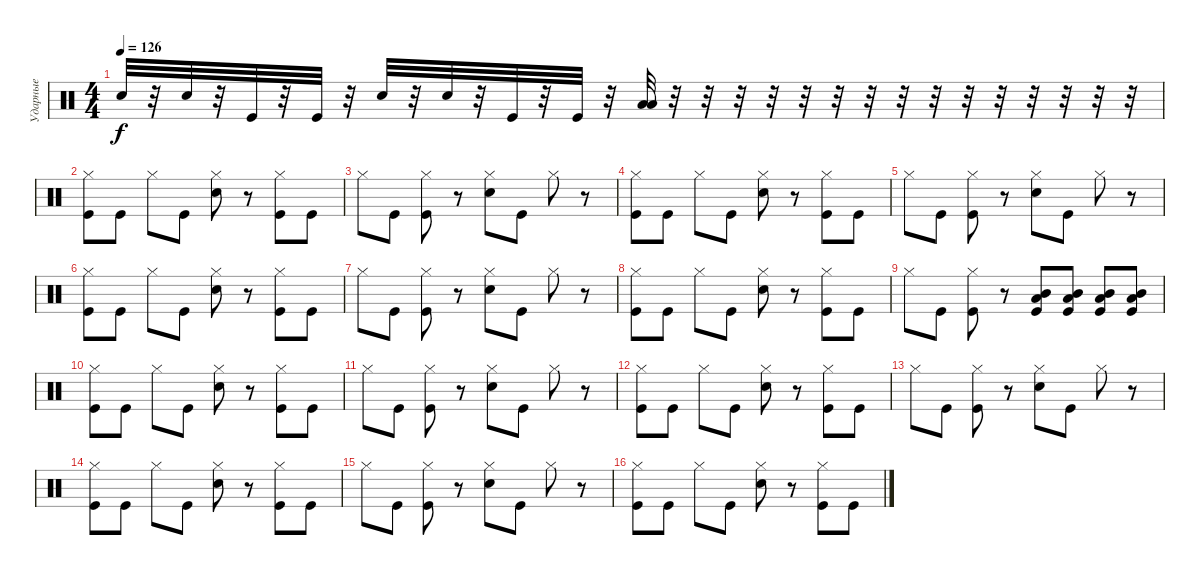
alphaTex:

\track ("Ударные" "Ударные") {instrument percussion}
\staff {score}
\articulation defaults
\ts (4 4)
\tempo 126
\clef neutral
\ks c "Electric Snare (hit)".32{dy f}
r.32 "Electric Snare (hit)".32 r.32 "Kick (hit)".32 r.32 "Kick (hit)".32 r.32 "Electric Snare (hit)".32 r.32 "Electric Snare (hit)".32 r.32 "Kick (hit)".32 r.32 "Kick (hit)".32 r.32 ("Low Floor Tom (hit)" "Low Tom (hit)").32 r.32 r.32 r.32 r.32 r.32 r.32 r.32 r.32 r.32 r.32 r.32 r.32 r.32 r.32 r.32 |
("Hi-Hat (closed)" "Kick (hit)").8 "Kick (hit)".8 "Hi-Hat (closed)".8 "Kick (hit)".8 ("Hi-Hat (closed)" "Electric Snare (hit)").8 r.8 ("Hi-Hat (closed)" "Kick (hit)").8 "Kick (hit)".8 |
"Hi-Hat (closed)".8 "Kick (hit)".8 ("Hi-Hat (closed)" "Kick (hit)").8 r.8 ("Hi-Hat (closed)" "Electric Snare (hit)").8 "Kick (hit)".8 "Hi-Hat (closed)".8 r.8 |
("Hi-Hat (closed)" "Kick (hit)").8 "Kick (hit)".8 "Hi-Hat (closed)".8 "Kick (hit)".8 ("Hi-Hat (closed)" "Electric Snare (hit)").8 r.8 ("Hi-Hat (closed)" "Kick (hit)").8 "Kick (hit)".8 |
"Hi-Hat (closed)".8 "Kick (hit)".8 ("Hi-Hat (closed)" "Kick (hit)").8 r.8 ("Hi-Hat (closed)" "Electric Snare (hit)").8 "Kick (hit)".8 "Hi-Hat (closed)".8 r.8 |
("Hi-Hat (closed)" "Kick (hit)").8 "Kick (hit)".8 "Hi-Hat (closed)".8 "Kick (hit)".8 ("Hi-Hat (closed)" "Electric Snare (hit)").8 r.8 ("Hi-Hat (closed)" "Kick (hit)").8 "Kick (hit)".8 |
"Hi-Hat (closed)".8 "Kick (hit)".8 ("Hi-Hat (closed)" "Kick (hit)").8 r.8 ("Hi-Hat (closed)" "Electric Snare (hit)").8 "Kick (hit)".8 "Hi-Hat (closed)".8 r.8 |
("Hi-Hat (closed)" "Kick (hit)").8 "Kick (hit)".8 "Hi-Hat (closed)".8 "Kick (hit)".8 ("Hi-Hat (closed)" "Electric Snare (hit)").8 r.8 ("Hi-Hat (closed)" "Kick (hit)").8 "Kick (hit)".8 |
"Hi-Hat (closed)".8 "Kick (hit)".8 ("Hi-Hat (closed)" "Kick (hit)").8 r.8 ("Low Floor Tom (hit)" "Mid Tom (hit)" "Kick (hit)").8 ("Low Floor Tom (hit)" "Mid Tom (hit)" "Kick (hit)").8 ("Low Floor Tom (hit)" "Mid Tom (hit)" "Kick (hit)").8 ("Low Floor Tom (hit)" "Mid Tom (hit)" "Kick (hit)").8 |
("Hi-Hat (closed)" "Kick (hit)").8 "Kick (hit)".8 "Hi-Hat (closed)".8 "Kick (hit)".8 ("Hi-Hat (closed)" "Electric Snare (hit)").8 r.8 ("Hi-Hat (closed)" "Kick (hit)").8 "Kick (hit)".8 |
"Hi-Hat (closed)".8 "Kick (hit)".8 ("Hi-Hat (closed)" "Kick (hit)").8 r.8 ("Hi-Hat (closed)" "Electric Snare (hit)").8 "Kick (hit)".8 "Hi-Hat (closed)".8 r.8 |
("Hi-Hat (closed)" "Kick (hit)").8 "Kick (hit)".8 "Hi-Hat (closed)".8 "Kick (hit)".8 ("Hi-Hat (closed)" "Electric Snare (hit)").8 r.8 ("Hi-Hat (closed)" "Kick (hit)").8 "Kick (hit)".8 |
"Hi-Hat (closed)".8 "Kick (hit)".8 ("Hi-Hat (closed)" "Kick (hit)").8 r.8 ("Hi-Hat (closed)" "Electric Snare (hit)").8 "Kick (hit)".8 "Hi-Hat (closed)".8 r.8 |
("Hi-Hat (closed)" "Kick (hit)").8 "Kick (hit)".8 "Hi-Hat (closed)".8 "Kick (hit)".8 ("Hi-Hat (closed)" "Electric Snare (hit)").8 r.8 ("Hi-Hat (closed)" "Kick (hit)").8 "Kick (hit)".8 |
"Hi-Hat (closed)".8 "Kick (hit)".8 ("Hi-Hat (closed)" "Kick (hit)").8 r.8 ("Hi-Hat (closed)" "Electric Snare (hit)").8 "Kick (hit)".8 "Hi-Hat (closed)".8 r.8 |
("Hi-Hat (closed)" "Kick (hit)").8 "Kick (hit)".8 "Hi-Hat (closed)".8 "Kick (hit)".8 ("Hi-Hat (closed)" "Electric Snare (hit)").8 r.8 ("Hi-Hat (closed)" "Kick (hit)").8 "Kick (hit)".8
